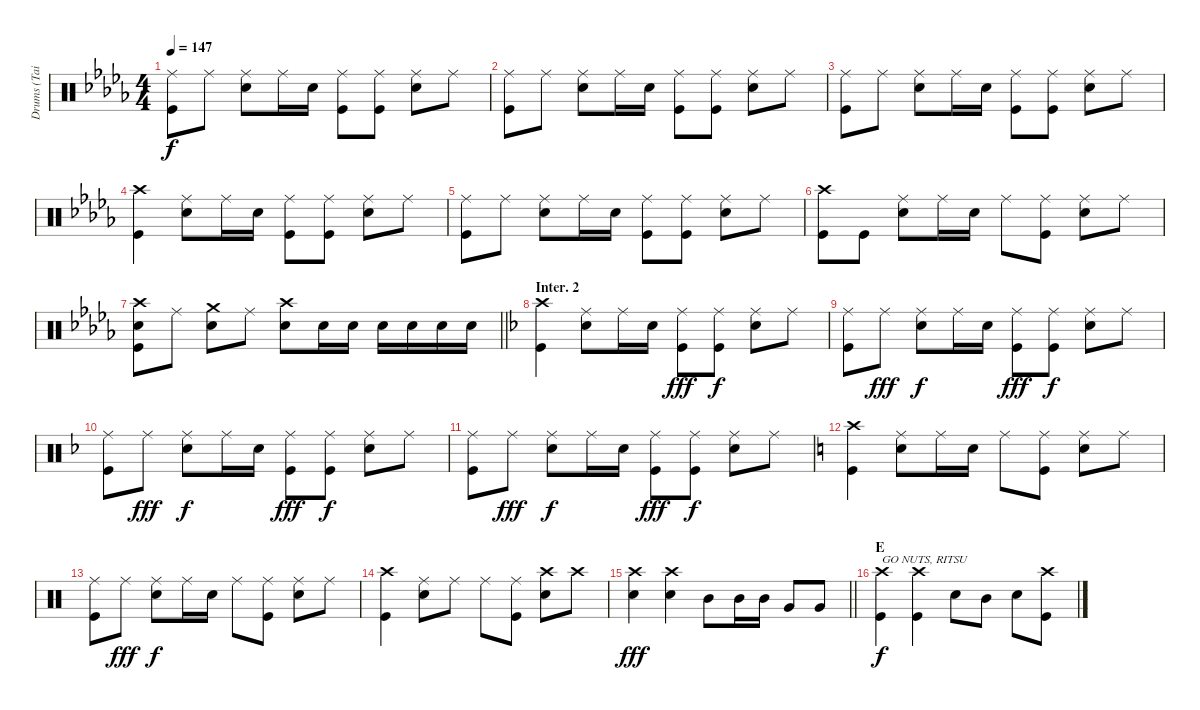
\track ("Drums (Tainaka Ritsu)" "Drums (Tai") {instrument percussion}
\staff {score}
\articulation defaults
\ts (4 4)
\tempo 147
\clef neutral
\ks db
("Ride (middle)" "Kick (hit)").8{dy f} "Ride (middle)".8 ("Ride (middle)" "Snare (hit) 2").8 "Ride (middle)".16 "Snare (hit) 2".16 ("Ride (middle)" "Kick (hit)").8 ("Ride (middle)" "Kick (hit)").8 ("Ride (middle)" "Snare (hit) 2").8 "Ride (middle)".8 |
("Ride (middle)" "Kick (hit)").8 "Ride (middle)".8 ("Ride (middle)" "Snare (hit) 2").8 "Ride (middle)".16 "Snare (hit) 2".16 ("Ride (middle)" "Kick (hit)").8 ("Ride (middle)" "Kick (hit)").8 ("Ride (middle)" "Snare (hit) 2").8 "Ride (middle)".8 |
("Ride (middle)" "Kick (hit)").8 "Ride (middle)".8 ("Ride (middle)" "Snare (hit) 2").8 "Ride (middle)".16 "Snare (hit) 2".16 ("Ride (middle)" "Kick (hit)").8 ("Ride (middle)" "Kick (hit)").8 ("Ride (middle)" "Snare (hit) 2").8 "Ride (middle)".8 |
("Crash high (hit)" "Kick (hit)").4 ("Ride (middle)" "Snare (hit) 2").8 "Ride (middle)".16 "Snare (hit) 2".16 ("Ride (middle)" "Kick (hit)").8 ("Ride (middle)" "Kick (hit)").8 ("Ride (middle)" "Snare (hit) 2").8 "Ride (middle)".8 |
("Ride (middle)" "Kick (hit)").8 "Ride (middle)".8 ("Ride (middle)" "Snare (hit) 2").8 "Ride (middle)".16 "Snare (hit) 2".16 ("Ride (middle)" "Kick (hit)").8 ("Ride (middle)" "Kick (hit)").8 ("Ride (middle)" "Snare (hit) 2").8 "Ride (middle)".8 |
("Crash high (hit)" "Kick (hit)").8 "Kick (hit)".8 ("Ride (middle)" "Snare (hit) 2").8 "Ride (middle)".16 "Snare (hit) 2".16 "Ride (middle)".8 ("Ride (middle)" "Kick (hit)").8 ("Ride (middle)" "Snare (hit) 2").8 "Ride (middle)".8 |
\barLineRight lightlight
("Crash high (hit)" "Snare (hit) 2" "Kick (hit)").8 "Ride (middle)".8 ("Crash medium (hit)" "Snare (hit) 2").8 "Ride (middle)".8 ("Crash high (hit)" "Snare (hit) 2").8 "Snare (hit) 2".16 "Snare (hit) 2".16 "Snare (hit) 2".16 "Snare (hit) 2".16 "Snare (hit) 2".16 "Snare (hit) 2".16 |
\section ("" "Inter. 2")
\ks f
("Crash high (hit)" "Kick (hit)").4 ("Ride (middle)" "Snare (hit) 2").8 "Ride (middle)".16 "Snare (hit) 2".16 ("Ride (middle)" "Kick (hit)").8{dy fff} ("Ride (middle)" "Kick (hit)").8{dy f} ("Ride (middle)" "Snare (hit) 2").8 "Ride (middle)".8 |
("Ride (middle)" "Kick (hit)").8 "Ride (middle)".8{dy fff} ("Ride (middle)" "Snare (hit) 2").8{dy f} "Ride (middle)".16 "Snare (hit) 2".16 ("Ride (middle)" "Kick (hit)").8{dy fff} ("Ride (middle)" "Kick (hit)").8{dy f} ("Ride (middle)" "Snare (hit) 2").8 "Ride (middle)".8 |
("Ride (middle)" "Kick (hit)").8 "Ride (middle)".8{dy fff} ("Ride (middle)" "Snare (hit) 2").8{dy f} "Ride (middle)".16 "Snare (hit) 2".16 ("Ride (middle)" "Kick (hit)").8{dy fff} ("Ride (middle)" "Kick (hit)").8{dy f} ("Ride (middle)" "Snare (hit) 2").8 "Ride (middle)".8 |
("Ride (middle)" "Kick (hit)").8 "Ride (middle)".8{dy fff} ("Ride (middle)" "Snare (hit) 2").8{dy f} "Ride (middle)".16 "Snare (hit) 2".16 ("Ride (middle)" "Kick (hit)").8{dy fff} ("Ride (middle)" "Kick (hit)").8{dy f} ("Ride (middle)" "Snare (hit) 2").8 "Ride (middle)".8 |
\ks c
("Crash high (hit)" "Kick (hit)").4 ("Ride (middle)" "Snare (hit) 2").8 "Ride (middle)".16 "Snare (hit) 2".16 "Ride (middle)".8 ("Ride (middle)" "Kick (hit)").8 ("Ride (middle)" "Snare (hit) 2").8 "Ride (middle)".8 |
("Ride (middle)" "Kick (hit)").8 "Ride (middle)".8{dy fff} ("Ride (middle)" "Snare (hit) 2").8{dy f} "Ride (middle)".16 "Snare (hit) 2".16 "Ride (middle)".8 ("Ride (middle)" "Kick (hit)").8 ("Ride (middle)" "Snare (hit) 2").8 "Ride (middle)".8 |
("Crash high (hit)" "Kick (hit)").4 ("Ride (middle)" "Snare (hit) 2").8 "Ride (middle)".8 "Ride (middle)".8 ("Ride (middle)" "Kick (hit)").8 ("Crash high (hit)" "Snare (hit) 2").8 "Crash high (hit)".8 |
\barLineRight lightlight
("Crash high (hit)" "Snare (hit) 2").4{dy fff} ("Crash high (hit)" "Snare (hit) 2").4 "Mid Tom (hit)".8 "Mid Tom (hit)".16 "Mid Tom (hit)".16 "Very Low Tom (hit)".8 "Very Low Tom (hit)".8 |
\section ("" "E")
("Crash high (hit)" "Kick (hit)").4{txt "GO NUTS, RITSU" dy f} ("Crash high (hit)" "Kick (hit)").4 "Snare (hit) 2".8 "Mid Tom (hit)".8 "Snare (hit) 2".8 ("Crash high (hit)" "Kick (hit)").8
